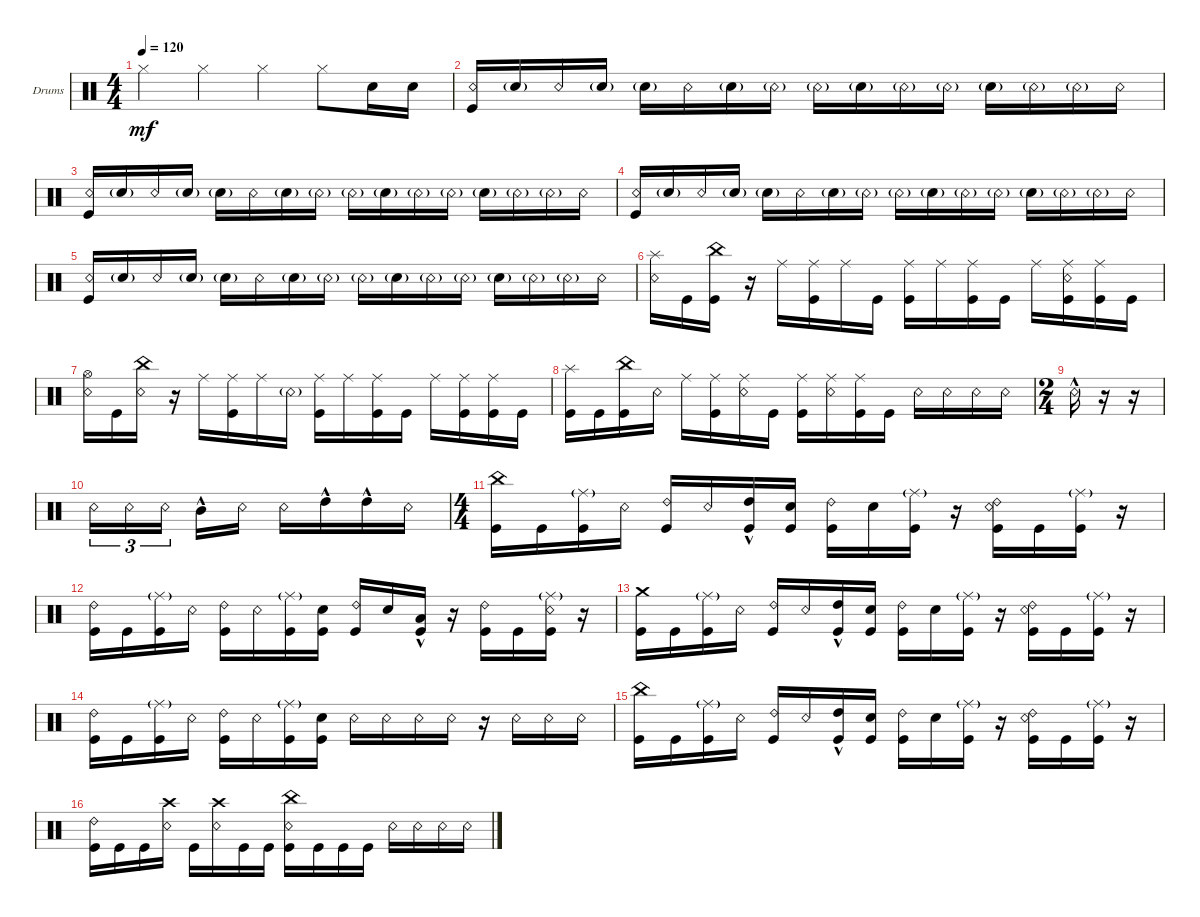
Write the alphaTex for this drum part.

\defaultSystemsLayout 4
\bracketExtendMode groupsimilarinstruments
\firstSystemTrackNameOrientation horizontal
\otherSystemsTrackNameOrientation horizontal
\track ("Drumkit" "Drums") {instrument percussion}
\staff {score}
\articulation defaults
\ts (4 4)
\scale
0.245206
\tempo 120
\accidentals auto
\clef neutral
\ottava regular
\simile none
\ks c "Hi-Hat (closed)".4{dy mf} "Hi-Hat (closed)".4 "Hi-Hat (closed)".4 "Hi-Hat (closed)".8 "Snare (hit) 2".16 "Snare (hit) 2".16
|
\scale
0.374026 ("Snare (rim shot)" "Kick (hit)").16 "Snare (hit) 2"{g}.16 "Snare (rim shot)".16 "Snare (hit) 2"{g}.16 "Snare (hit) 2"{g}.16 "Snare (rim shot)".16 "Snare (hit) 2"{g}.16 "Snare (rim shot)"{g}.16 "Snare (rim shot)"{g}.16 "Snare (hit) 2"{g}.16 "Snare (rim shot)"{g}.16 "Snare (rim shot)"{g}.16 "Snare (hit) 2"{g}.16 "Snare (rim shot)"{g}.16 "Snare (rim shot)"{g}.16 "Snare (rim shot)".16 |
\scale
0.380069 ("Snare (rim shot)" "Kick (hit)").16 "Snare (hit) 2"{g}.16 "Snare (rim shot)".16 "Snare (hit) 2"{g}.16 "Snare (hit) 2"{g}.16 "Snare (rim shot)".16 "Snare (hit) 2"{g}.16 "Snare (rim shot)"{g}.16 "Snare (rim shot)"{g}.16 "Snare (hit) 2"{g}.16 "Snare (rim shot)"{g}.16 "Snare (rim shot)"{g}.16 "Snare (hit) 2"{g}.16 "Snare (rim shot)"{g}.16 "Snare (rim shot)"{g}.16 "Snare (rim shot)".16 |
\scale
0.374026 ("Snare (rim shot)" "Kick (hit)").16 "Snare (hit) 2"{g}.16 "Snare (rim shot)".16 "Snare (hit) 2"{g}.16 "Snare (hit) 2"{g}.16 "Snare (rim shot)".16 "Snare (hit) 2"{g}.16 "Snare (rim shot)"{g}.16 "Snare (rim shot)"{g}.16 "Snare (hit) 2"{g}.16 "Snare (rim shot)"{g}.16 "Snare (rim shot)"{g}.16 "Snare (hit) 2"{g}.16 "Snare (rim shot)"{g}.16 "Snare (rim shot)"{g}.16 "Snare (rim shot)".16 |
\scale
0.380069 ("Snare (rim shot)" "Kick (hit)").16 "Snare (hit) 2"{g}.16 "Snare (rim shot)".16 "Snare (hit) 2"{g}.16 "Snare (hit) 2"{g}.16 "Snare (rim shot)".16 "Snare (hit) 2"{g}.16 "Snare (rim shot)"{g}.16 "Snare (rim shot)"{g}.16 "Snare (hit) 2"{g}.16 "Snare (rim shot)"{g}.16 "Snare (rim shot)"{g}.16 "Snare (hit) 2"{g}.16 "Snare (rim shot)"{g}.16 "Snare (rim shot)"{g}.16 "Snare (rim shot)".16 |
("Splash (hit)" "Snare (rim shot)").16 "Kick (hit)".16 ("Kick (hit)" "China (hit)").16 r.16 "Ride (middle)".16 ("Ride (middle)" "Kick (hit)").16 "Ride (middle)".16 "Kick (hit)".16 ("Ride (middle)" "Kick (hit)").16 "Ride (middle)".16 ("Ride (middle)" "Kick (hit)").16 "Kick (hit)".16 "Ride (middle)".16 ("Ride (middle)" "Kick (hit)" "Snare (rim shot)").16 ("Ride (middle)" "Kick (hit)").16 "Kick (hit)".16 |
("Snare (rim shot)" "Hi-Hat (open)").16 "Kick (hit)".16 ("China (hit)" "Snare (rim shot)").16 r.16 "Ride (middle)".16 ("Ride (middle)" "Kick (hit)").16 "Ride (middle)".16 "Snare (rim shot)"{g}.16 ("Kick (hit)" "Ride (middle)").16 "Ride (middle)".16 ("Kick (hit)" "Ride (middle)").16 "Kick (hit)".16 "Ride (middle)".16 ("Ride (middle)" "Kick (hit)").16 ("Ride (middle)" "Kick (hit)").16 "Kick (hit)".16 |
("Kick (hit)" "Splash (hit)").16 "Kick (hit)".16 ("Kick (hit)" "China (hit)").16 "Snare (rim shot)".16 "Ride (middle)".16 ("Ride (middle)" "Kick (hit)").16 ("Ride (middle)" "Snare (rim shot)").16 "Kick (hit)".16 ("Ride (middle)" "Kick (hit)").16 ("Ride (middle)" "Snare (rim shot)").16 ("Ride (middle)" "Kick (hit)").16 "Kick (hit)".16 "Snare (rim shot)".16 "Snare (rim shot)".16 "Snare (rim shot)".16 "Snare (rim shot)".16 |
\ts (2 4)
"Snare (rim shot)"{hac}.16 r.16 r.16 |
"Snare (rim shot)".16{tu (3 2)} "Snare (rim shot)".16{tu (3 2)} "Snare (rim shot)".16{tu (3 2)} "Mid Tom (hit)"{hac}.16 "Snare (rim shot)".16 "Snare (rim shot)".16 "High Tom (hit)"{hac}.16 "High Tom (hit)"{hac}.16 "Snare (rim shot)".16 |
\ts (4 4)
("Kick (hit)" "China (hit)").16 "Kick (hit)".16 ("Kick (hit)" "Ride (middle)"{g}).16 "Snare (rim shot)".16 ("Kick (hit)" "Ride (bell) 2").16 "Snare (rim shot)".16 ("Kick (hit)" "High Tom (hit)"{hac}).16 ("Kick (hit)" "Snare (hit) 2").16 ("Kick (hit)" "Ride (bell) 2").16 "Snare (hit) 2".16 ("Kick (hit)" "Ride (middle)"{g}).16 r.16 ("Kick (hit)" "Ride (bell) 2" "Snare (rim shot)").16 "Kick (hit)".16 ("Kick (hit)" "Ride (middle)"{g}).16 r.16 |
("Kick (hit)" "Ride (bell) 2").16 "Kick (hit)".16 ("Kick (hit)" "Ride (middle)"{g}).16 "Snare (rim shot)".16 ("Kick (hit)" "Ride (bell) 2").16 "Snare (rim shot)".16 ("Kick (hit)" "Ride (middle)"{g}).16 ("Kick (hit)" "Snare (hit) 2").16 ("Kick (hit)" "Ride (bell) 2").16 "Snare (hit) 2".16 ("Kick (hit)" "Low Tom (hit)"{hac}).16 r.16 ("Kick (hit)" "Ride (bell) 2").16 "Kick (hit)".16 ("Kick (hit)" "Ride (middle)"{g} "Snare (rim shot)").16 r.16 |
("Kick (hit)" "Crash medium (hit)").16 "Kick (hit)".16 ("Kick (hit)" "Ride (middle)"{g}).16 "Snare (rim shot)".16 ("Kick (hit)" "Ride (bell) 2").16 "Snare (rim shot)".16 ("Kick (hit)" "High Tom (hit)"{hac}).16 ("Kick (hit)" "Snare (hit) 2").16 ("Kick (hit)" "Ride (bell) 2").16 "Snare (hit) 2".16 ("Kick (hit)" "Ride (middle)"{g}).16 r.16 ("Kick (hit)" "Ride (bell) 2" "Snare (rim shot)").16 "Kick (hit)".16 ("Kick (hit)" "Ride (middle)"{g}).16 r.16 |
("Kick (hit)" "Ride (bell) 2").16 "Kick (hit)".16 ("Kick (hit)" "Ride (middle)"{g}).16 "Snare (rim shot)".16 ("Kick (hit)" "Ride (bell) 2").16 "Snare (rim shot)".16 ("Kick (hit)" "Ride (middle)"{g}).16 ("Kick (hit)" "Snare (hit) 2").16 "Snare (rim shot)".16 "Snare (rim shot)".16 "Snare (rim shot)".16 "Snare (rim shot)".16 r.16 "Snare (rim shot)".16 "Snare (rim shot)".16 "Snare (rim shot)".16 |
("Kick (hit)" "China (hit)").16 "Kick (hit)".16 ("Kick (hit)" "Ride (middle)"{g}).16 "Snare (rim shot)".16 ("Kick (hit)" "Ride (bell) 2").16 "Snare (rim shot)".16 ("Kick (hit)" "High Tom (hit)"{hac}).16 ("Kick (hit)" "Snare (hit) 2").16 ("Kick (hit)" "Ride (bell) 2").16 "Snare (hit) 2".16 ("Kick (hit)" "Ride (middle)"{g}).16 r.16 ("Kick (hit)" "Ride (bell) 2" "Snare (rim shot)").16 "Kick (hit)".16 ("Kick (hit)" "Ride (middle)"{g}).16 r.16 |
("Kick (hit)" "Ride (bell) 2").16 "Kick (hit)".16 "Kick (hit)".16 ("Snare (rim shot)" "Crash high (hit)").16 "Kick (hit)".16 ("Snare (rim shot)" "Crash high (hit)").16 "Kick (hit)".16 "Kick (hit)".16 ("Snare (rim shot)" "Kick (hit)" "China (hit)").16 "Kick (hit)".16 "Kick (hit)".16 "Kick (hit)".16 "Snare (rim shot)".16 "Snare (rim shot)".16 "Snare (rim shot)".16 "Snare (rim shot)".16
